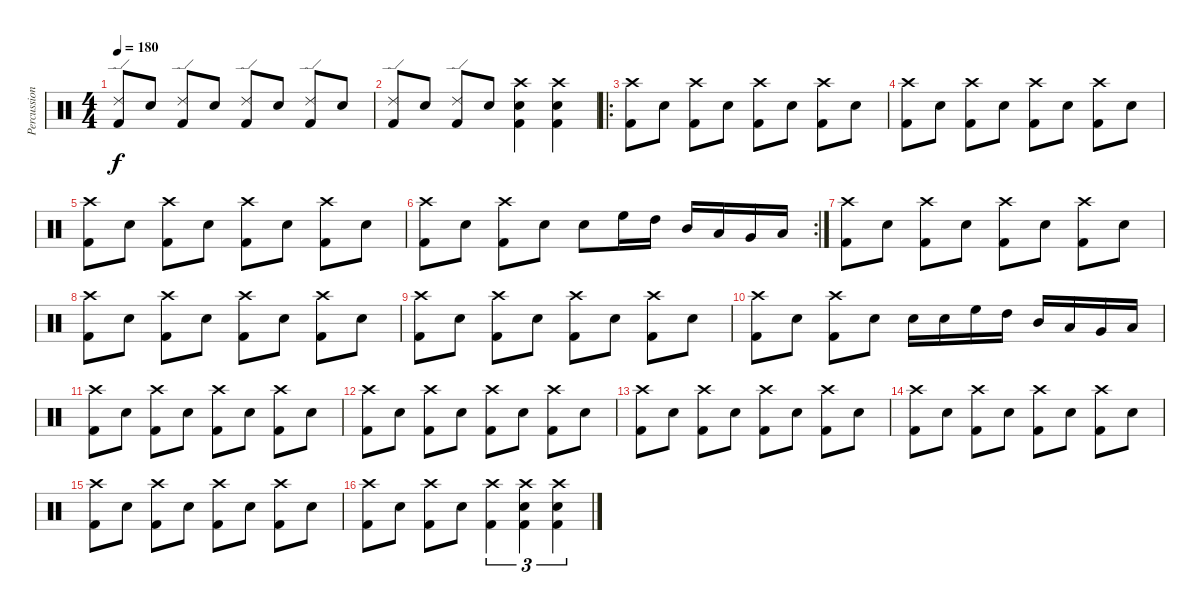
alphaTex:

\track ("Percussion" "Percussion") {instrument percussion}
\staff {score}
\articulation defaults
\ts (4 4)
\tempo 180
\clef neutral
\ks c
("Ride (edge) 2" "Kick (hit) 2").8{dy f} "Electric Snare (hit)".8 ("Ride (edge) 2" "Kick (hit) 2").8 "Electric Snare (hit)".8 ("Ride (edge) 2" "Kick (hit) 2").8 "Electric Snare (hit)".8 ("Ride (edge) 2" "Kick (hit) 2").8 "Electric Snare (hit)".8 |
("Ride (edge) 2" "Kick (hit) 2").8 "Electric Snare (hit)".8 ("Ride (edge) 2" "Kick (hit) 2").8 "Electric Snare (hit)".8 ("Crash high (hit)" "Electric Snare (hit)" "Kick (hit) 2").4 ("Crash high (hit)" "Electric Snare (hit)" "Kick (hit) 2").4 |
\ro
("Crash high (hit)" "Kick (hit) 2").8 "Electric Snare (hit)".8 ("Crash high (hit)" "Kick (hit) 2").8 "Electric Snare (hit)".8 ("Crash high (hit)" "Kick (hit) 2").8 "Electric Snare (hit)".8 ("Crash high (hit)" "Kick (hit) 2").8 "Electric Snare (hit)".8 |
("Crash high (hit)" "Kick (hit) 2").8 "Electric Snare (hit)".8 ("Crash high (hit)" "Kick (hit) 2").8 "Electric Snare (hit)".8 ("Crash high (hit)" "Kick (hit) 2").8 "Electric Snare (hit)".8 ("Crash high (hit)" "Kick (hit) 2").8 "Electric Snare (hit)".8 |
("Crash high (hit)" "Kick (hit) 2").8 "Electric Snare (hit)".8 ("Crash high (hit)" "Kick (hit) 2").8 "Electric Snare (hit)".8 ("Crash high (hit)" "Kick (hit) 2").8 "Electric Snare (hit)".8 ("Crash high (hit)" "Kick (hit) 2").8 "Electric Snare (hit)".8 |
\rc 2
("Crash high (hit)" "Kick (hit) 2").8 "Electric Snare (hit)".8 ("Crash high (hit)" "Kick (hit) 2").8 "Electric Snare (hit)".8 "Electric Snare (hit)".8 "High Floor Tom (hit)".16 "High Tom (hit)".16 "Mid Tom (hit)".16 "Low Tom (hit)".16 "Very Low Tom (hit)".16 "Low Floor Tom (hit)".16 |
("Crash high (hit)" "Kick (hit) 2").8 "Electric Snare (hit)".8 ("Crash high (hit)" "Kick (hit) 2").8 "Electric Snare (hit)".8 ("Crash high (hit)" "Kick (hit) 2").8 "Electric Snare (hit)".8 ("Crash high (hit)" "Kick (hit) 2").8 "Electric Snare (hit)".8 |
("Crash high (hit)" "Kick (hit) 2").8 "Electric Snare (hit)".8 ("Crash high (hit)" "Kick (hit) 2").8 "Electric Snare (hit)".8 ("Crash high (hit)" "Kick (hit) 2").8 "Electric Snare (hit)".8 ("Crash high (hit)" "Kick (hit) 2").8 "Electric Snare (hit)".8 |
("Crash high (hit)" "Kick (hit) 2").8 "Electric Snare (hit)".8 ("Crash high (hit)" "Kick (hit) 2").8 "Electric Snare (hit)".8 ("Crash high (hit)" "Kick (hit) 2").8 "Electric Snare (hit)".8 ("Crash high (hit)" "Kick (hit) 2").8 "Electric Snare (hit)".8 |
("Crash high (hit)" "Kick (hit) 2").8 "Electric Snare (hit)".8 ("Crash high (hit)" "Kick (hit) 2").8 "Electric Snare (hit)".8 "Electric Snare (hit)".16 "Electric Snare (hit)".16 "High Floor Tom (hit)".16 "High Tom (hit)".16 "Mid Tom (hit)".16 "Low Tom (hit)".16 "Very Low Tom (hit)".16 "Low Floor Tom (hit)".16 |
("Crash high (hit)" "Kick (hit) 2").8 "Electric Snare (hit)".8 ("Crash high (hit)" "Kick (hit) 2").8 "Electric Snare (hit)".8 ("Crash high (hit)" "Kick (hit) 2").8 "Electric Snare (hit)".8 ("Crash high (hit)" "Kick (hit) 2").8 "Electric Snare (hit)".8 |
("Crash high (hit)" "Kick (hit) 2").8 "Electric Snare (hit)".8 ("Crash high (hit)" "Kick (hit) 2").8 "Electric Snare (hit)".8 ("Crash high (hit)" "Kick (hit) 2").8 "Electric Snare (hit)".8 ("Crash high (hit)" "Kick (hit) 2").8 "Electric Snare (hit)".8 |
("Crash high (hit)" "Kick (hit) 2").8 "Electric Snare (hit)".8 ("Crash high (hit)" "Kick (hit) 2").8 "Electric Snare (hit)".8 ("Crash high (hit)" "Kick (hit) 2").8 "Electric Snare (hit)".8 ("Crash high (hit)" "Kick (hit) 2").8 "Electric Snare (hit)".8 |
("Crash high (hit)" "Kick (hit) 2").8 "Electric Snare (hit)".8 ("Crash high (hit)" "Kick (hit) 2").8 "Electric Snare (hit)".8 ("Crash high (hit)" "Kick (hit) 2").8 "Electric Snare (hit)".8 ("Crash high (hit)" "Kick (hit) 2").8 "Electric Snare (hit)".8 |
("Crash high (hit)" "Kick (hit) 2").8 "Electric Snare (hit)".8 ("Crash high (hit)" "Kick (hit) 2").8 "Electric Snare (hit)".8 ("Crash high (hit)" "Kick (hit) 2").8 "Electric Snare (hit)".8 ("Crash high (hit)" "Kick (hit) 2").8 "Electric Snare (hit)".8 |
("Crash high (hit)" "Kick (hit) 2").8 "Electric Snare (hit)".8 ("Crash high (hit)" "Kick (hit) 2").8 "Electric Snare (hit)".8 ("Crash high (hit)" "Kick (hit) 2").4{tu (3 2)} ("Crash high (hit)" "Electric Snare (hit)" "Kick (hit) 2").4{tu (3 2)} ("Crash high (hit)" "Electric Snare (hit)" "Kick (hit) 2").4{tu (3 2)}
